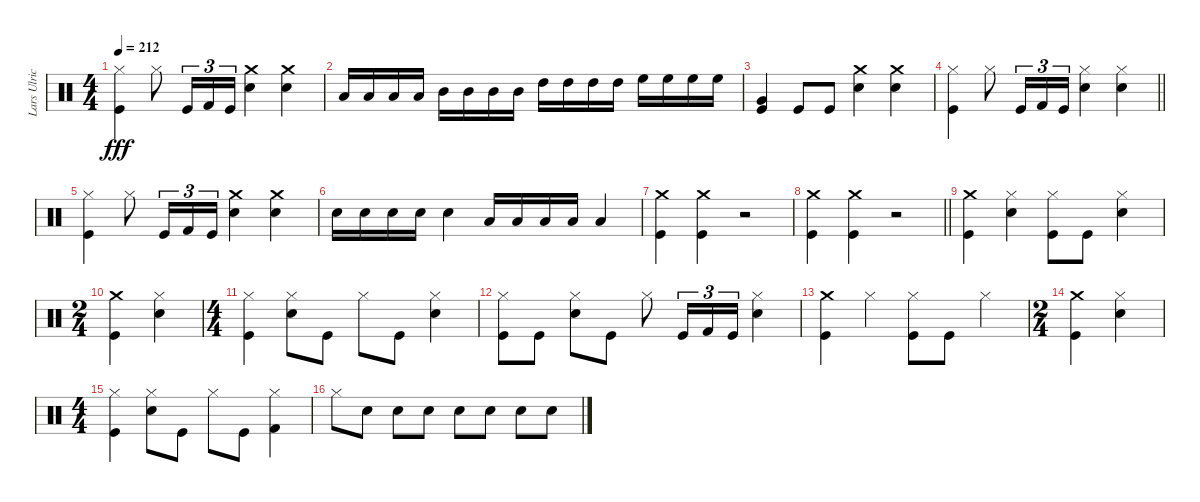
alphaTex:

\track ("Lars Ulrich" "Lars Ulric") {instrument percussion}
\staff {score}
\articulation defaults
\ts (4 4)
\tempo 212
\clef neutral
\ks c
("Hi-Hat (closed)" "Kick (hit)").4{dy fff} "Hi-Hat (closed)".8 "Kick (hit)".16{tu (3 2)} "Kick (hit) 2".16{tu (3 2)} "Kick (hit)".16{tu (3 2)} ("Crash medium (hit)" "Snare (hit) 2").4 ("Crash medium (hit)" "Snare (hit) 2").4 |
"Low Tom (hit)".16 "Low Tom (hit)".16 "Low Tom (hit)".16 "Low Tom (hit)".16 "Mid Tom (hit)".16 "Mid Tom (hit)".16 "Mid Tom (hit)".16 "Mid Tom (hit)".16 "High Tom (hit)".16 "High Tom (hit)".16 "High Tom (hit)".16 "High Tom (hit)".16 "High Floor Tom (hit)".16 "High Floor Tom (hit)".16 "High Floor Tom (hit)".16 "High Floor Tom (hit)".16 |
("Kick (hit)" "Very Low Tom (hit)").4 "Kick (hit)".8 "Kick (hit)".8 ("Crash medium (hit)" "Snare (hit) 2").4 ("Crash medium (hit)" "Snare (hit) 2").4 |
\barLineRight lightlight
("Kick (hit)" "Hi-Hat (closed)").4 "Hi-Hat (closed)".8 "Kick (hit)".16{tu (3 2)} "Kick (hit) 2".16{tu (3 2)} "Kick (hit)".16{tu (3 2)} ("Snare (hit) 2" "Hi-Hat (closed)").4 ("Snare (hit) 2" "Hi-Hat (closed)").4 |
("Hi-Hat (closed)" "Kick (hit)").4 "Hi-Hat (closed)".8 "Kick (hit)".16{tu (3 2)} "Kick (hit) 2".16{tu (3 2)} "Kick (hit)".16{tu (3 2)} ("Snare (hit) 2" "Crash medium (hit)").4 ("Snare (hit) 2" "Crash medium (hit)").4 |
"Snare (hit) 2".16 "Snare (hit) 2".16 "Snare (hit) 2".16 "Snare (hit) 2".16 "Snare (hit) 2".4 "Low Tom (hit)".16 "Low Tom (hit)".16 "Low Tom (hit)".16 "Low Tom (hit)".16 "Low Tom (hit)".4 |
("Crash medium (hit)" "Kick (hit)").4 ("Kick (hit)" "Crash medium (hit)").4 r.2 |
\barLineRight lightlight
("Kick (hit)" "Crash medium (hit)").4 ("Kick (hit)" "Crash medium (hit)").4 r.2 |
("Kick (hit)" "Crash medium (hit)").4 ("Snare (hit) 2" "Hi-Hat (closed)").4 ("Kick (hit)" "Hi-Hat (closed)").8 "Kick (hit)".8 ("Snare (hit) 2" "Hi-Hat (closed)").4 |
\ts (2 4)
("Kick (hit)" "Crash medium (hit)").4 ("Snare (hit) 2" "Hi-Hat (closed)").4 |
\ts (4 4)
("Kick (hit)" "Hi-Hat (closed)").4 ("Snare (hit) 2" "Hi-Hat (closed)").8 "Kick (hit)".8 "Hi-Hat (closed)".8 "Kick (hit)".8 ("Snare (hit) 2" "Hi-Hat (closed)").4 |
("Hi-Hat (closed)" "Kick (hit)").8 "Kick (hit)".8 ("Snare (hit) 2" "Hi-Hat (closed)").8 "Kick (hit)".8 "Hi-Hat (closed)".8 "Kick (hit)".16{tu (3 2)} "Kick (hit) 2".16{tu (3 2)} "Kick (hit)".16{tu (3 2)} ("Snare (hit) 2" "Hi-Hat (closed)").4 |
("Kick (hit)" "Crash medium (hit)").4 "Hi-Hat (closed)".4 ("Kick (hit)" "Hi-Hat (closed)").8 "Kick (hit)".8 "Hi-Hat (closed)".4 |
\ts (2 4)
("Kick (hit)" "Crash medium (hit)").4 ("Snare (hit) 2" "Hi-Hat (closed)").4 |
\ts (4 4)
("Hi-Hat (closed)" "Kick (hit)").4 ("Snare (hit) 2" "Hi-Hat (closed)").8 "Kick (hit)".8 "Hi-Hat (closed)".8 "Kick (hit)".8 ("Kick (hit) 2" "Hi-Hat (closed)").4 |
"Hi-Hat (closed)".8 "Snare (hit) 2".8 "Snare (hit) 2".8 "Snare (hit) 2".8 "Snare (hit) 2".8 "Snare (hit) 2".8 "Snare (hit) 2".8 "Snare (hit) 2".8
